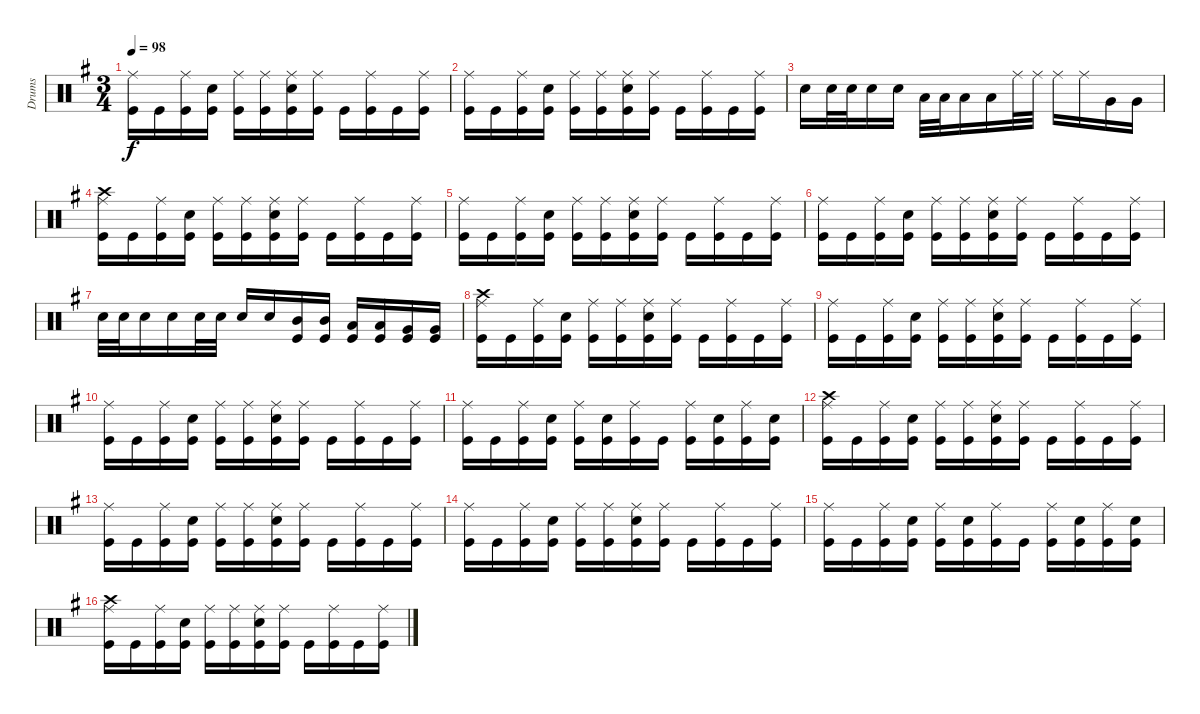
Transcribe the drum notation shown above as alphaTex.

\track ("Drums" "Drums") {instrument percussion}
\staff {score}
\articulation defaults
\ts (3 4)
\tempo 98
\clef neutral
\ks eminor
("Ride (middle)" "Kick (hit)").16{dy f} "Kick (hit)".16 ("Ride (middle)" "Kick (hit)").16 ("Electric Snare (hit)" "Kick (hit)").16 ("Ride (middle)" "Kick (hit)").16 ("Ride (middle)" "Kick (hit)").16 ("Ride (middle)" "Electric Snare (hit)" "Kick (hit)").16 ("Ride (middle)" "Kick (hit)").16 "Kick (hit)".16 ("Ride (middle)" "Kick (hit)").16 "Kick (hit)".16 ("Ride (middle)" "Kick (hit)").16 |
("Ride (middle)" "Kick (hit)").16 "Kick (hit)".16 ("Ride (middle)" "Kick (hit)").16 ("Electric Snare (hit)" "Kick (hit)").16 ("Ride (middle)" "Kick (hit)").16 ("Ride (middle)" "Kick (hit)").16 ("Ride (middle)" "Electric Snare (hit)" "Kick (hit)").16 ("Ride (middle)" "Kick (hit)").16 "Kick (hit)".16 ("Ride (middle)" "Kick (hit)").16 "Kick (hit)".16 ("Ride (middle)" "Kick (hit)").16 |
"Electric Snare (hit)".16 "Electric Snare (hit)".32 "Electric Snare (hit)".32 "Electric Snare (hit)".16 "Electric Snare (hit)".16 "Low Tom (hit)".32 "Low Tom (hit)".32 "Low Tom (hit)".16 "Low Tom (hit)".16 "Ride (middle)".32 "Ride (middle)".32 "Ride (middle)".16 "Ride (middle)".16 "Very Low Tom (hit)".16 "Very Low Tom (hit)".16 |
("Crash high (hit)" "Ride (middle)" "Kick (hit)").16{volume 14} "Kick (hit)".16 ("Ride (middle)" "Kick (hit)").16 ("Electric Snare (hit)" "Kick (hit)").16 ("Ride (middle)" "Kick (hit)").16 ("Ride (middle)" "Kick (hit)").16 ("Ride (middle)" "Electric Snare (hit)" "Kick (hit)").16 ("Ride (middle)" "Kick (hit)").16 "Kick (hit)".16 ("Ride (middle)" "Kick (hit)").16 "Kick (hit)".16 ("Ride (middle)" "Kick (hit)").16 |
("Ride (middle)" "Kick (hit)").16 "Kick (hit)".16 ("Ride (middle)" "Kick (hit)").16 ("Electric Snare (hit)" "Kick (hit)").16 ("Ride (middle)" "Kick (hit)").16 ("Ride (middle)" "Kick (hit)").16 ("Ride (middle)" "Electric Snare (hit)" "Kick (hit)").16 ("Ride (middle)" "Kick (hit)").16 "Kick (hit)".16 ("Ride (middle)" "Kick (hit)").16 "Kick (hit)".16 ("Ride (middle)" "Kick (hit)").16 |
("Ride (middle)" "Kick (hit)").16 "Kick (hit)".16 ("Ride (middle)" "Kick (hit)").16 ("Electric Snare (hit)" "Kick (hit)").16 ("Ride (middle)" "Kick (hit)").16 ("Ride (middle)" "Kick (hit)").16 ("Ride (middle)" "Electric Snare (hit)" "Kick (hit)").16 ("Ride (middle)" "Kick (hit)").16 "Kick (hit)".16 ("Ride (middle)" "Kick (hit)").16 "Kick (hit)".16 ("Ride (middle)" "Kick (hit)").16 |
"Electric Snare (hit)".32 "Electric Snare (hit)".32 "Electric Snare (hit)".16 "Electric Snare (hit)".16 "Electric Snare (hit)".32 "Electric Snare (hit)".32 "Electric Snare (hit)".16 "Electric Snare (hit)".16 ("Mid Tom (hit)" "Kick (hit)").16 ("Mid Tom (hit)" "Kick (hit)").16 ("Low Tom (hit)" "Kick (hit)").16 ("Low Tom (hit)" "Kick (hit)").16 ("Very Low Tom (hit)" "Kick (hit)").16 ("Very Low Tom (hit)" "Kick (hit)").16 |
("Crash high (hit)" "Ride (middle)" "Kick (hit)").16{volume 13} "Kick (hit)".16 ("Ride (middle)" "Kick (hit)").16 ("Electric Snare (hit)" "Kick (hit)").16 ("Ride (middle)" "Kick (hit)").16 ("Ride (middle)" "Kick (hit)").16 ("Ride (middle)" "Electric Snare (hit)" "Kick (hit)").16 ("Ride (middle)" "Kick (hit)").16 "Kick (hit)".16 ("Ride (middle)" "Kick (hit)").16 "Kick (hit)".16 ("Ride (middle)" "Kick (hit)").16 |
("Ride (middle)" "Kick (hit)").16 "Kick (hit)".16 ("Ride (middle)" "Kick (hit)").16 ("Electric Snare (hit)" "Kick (hit)").16 ("Ride (middle)" "Kick (hit)").16 ("Ride (middle)" "Kick (hit)").16 ("Ride (middle)" "Electric Snare (hit)" "Kick (hit)").16 ("Ride (middle)" "Kick (hit)").16 "Kick (hit)".16 ("Ride (middle)" "Kick (hit)").16 "Kick (hit)".16 ("Ride (middle)" "Kick (hit)").16 |
("Ride (middle)" "Kick (hit)").16 "Kick (hit)".16 ("Ride (middle)" "Kick (hit)").16 ("Electric Snare (hit)" "Kick (hit)").16 ("Ride (middle)" "Kick (hit)").16 ("Ride (middle)" "Kick (hit)").16 ("Ride (middle)" "Electric Snare (hit)" "Kick (hit)").16 ("Ride (middle)" "Kick (hit)").16 "Kick (hit)".16 ("Ride (middle)" "Kick (hit)").16 "Kick (hit)".16 ("Ride (middle)" "Kick (hit)").16 |
("Ride (middle)" "Kick (hit)").16 "Kick (hit)".16 ("Ride (middle)" "Kick (hit)").16 ("Electric Snare (hit)" "Kick (hit)").16 ("Ride (middle)" "Kick (hit)").16 ("Electric Snare (hit)" "Kick (hit)").16 ("Ride (middle)" "Kick (hit)").16 "Kick (hit)".16 ("Ride (middle)" "Kick (hit)").16 ("Electric Snare (hit)" "Kick (hit)").16 ("Ride (middle)" "Kick (hit)").16 ("Electric Snare (hit)" "Kick (hit)").16 |
("Crash high (hit)" "Ride (middle)" "Kick (hit)").16{volume 7} "Kick (hit)".16 ("Ride (middle)" "Kick (hit)").16 ("Electric Snare (hit)" "Kick (hit)").16 ("Ride (middle)" "Kick (hit)").16 ("Ride (middle)" "Kick (hit)").16 ("Ride (middle)" "Electric Snare (hit)" "Kick (hit)").16 ("Ride (middle)" "Kick (hit)").16 "Kick (hit)".16 ("Ride (middle)" "Kick (hit)").16 "Kick (hit)".16 ("Ride (middle)" "Kick (hit)").16 |
("Ride (middle)" "Kick (hit)").16 "Kick (hit)".16 ("Ride (middle)" "Kick (hit)").16 ("Electric Snare (hit)" "Kick (hit)").16 ("Ride (middle)" "Kick (hit)").16 ("Ride (middle)" "Kick (hit)").16 ("Ride (middle)" "Electric Snare (hit)" "Kick (hit)").16 ("Ride (middle)" "Kick (hit)").16 "Kick (hit)".16 ("Ride (middle)" "Kick (hit)").16 "Kick (hit)".16 ("Ride (middle)" "Kick (hit)").16 |
("Ride (middle)" "Kick (hit)").16 "Kick (hit)".16 ("Ride (middle)" "Kick (hit)").16 ("Electric Snare (hit)" "Kick (hit)").16 ("Ride (middle)" "Kick (hit)").16 ("Ride (middle)" "Kick (hit)").16 ("Ride (middle)" "Electric Snare (hit)" "Kick (hit)").16 ("Ride (middle)" "Kick (hit)").16 "Kick (hit)".16 ("Ride (middle)" "Kick (hit)").16 "Kick (hit)".16 ("Ride (middle)" "Kick (hit)").16 |
("Ride (middle)" "Kick (hit)").16 "Kick (hit)".16 ("Ride (middle)" "Kick (hit)").16 ("Electric Snare (hit)" "Kick (hit)").16 ("Ride (middle)" "Kick (hit)").16 ("Electric Snare (hit)" "Kick (hit)").16 ("Ride (middle)" "Kick (hit)").16 "Kick (hit)".16 ("Ride (middle)" "Kick (hit)").16 ("Electric Snare (hit)" "Kick (hit)").16 ("Ride (middle)" "Kick (hit)").16 ("Electric Snare (hit)" "Kick (hit)").16 |
("Crash high (hit)" "Ride (middle)" "Kick (hit)").16{volume 0} "Kick (hit)".16 ("Ride (middle)" "Kick (hit)").16 ("Electric Snare (hit)" "Kick (hit)").16 ("Ride (middle)" "Kick (hit)").16 ("Ride (middle)" "Kick (hit)").16 ("Ride (middle)" "Electric Snare (hit)" "Kick (hit)").16 ("Ride (middle)" "Kick (hit)").16 "Kick (hit)".16 ("Ride (middle)" "Kick (hit)").16 "Kick (hit)".16 ("Ride (middle)" "Kick (hit)").16
